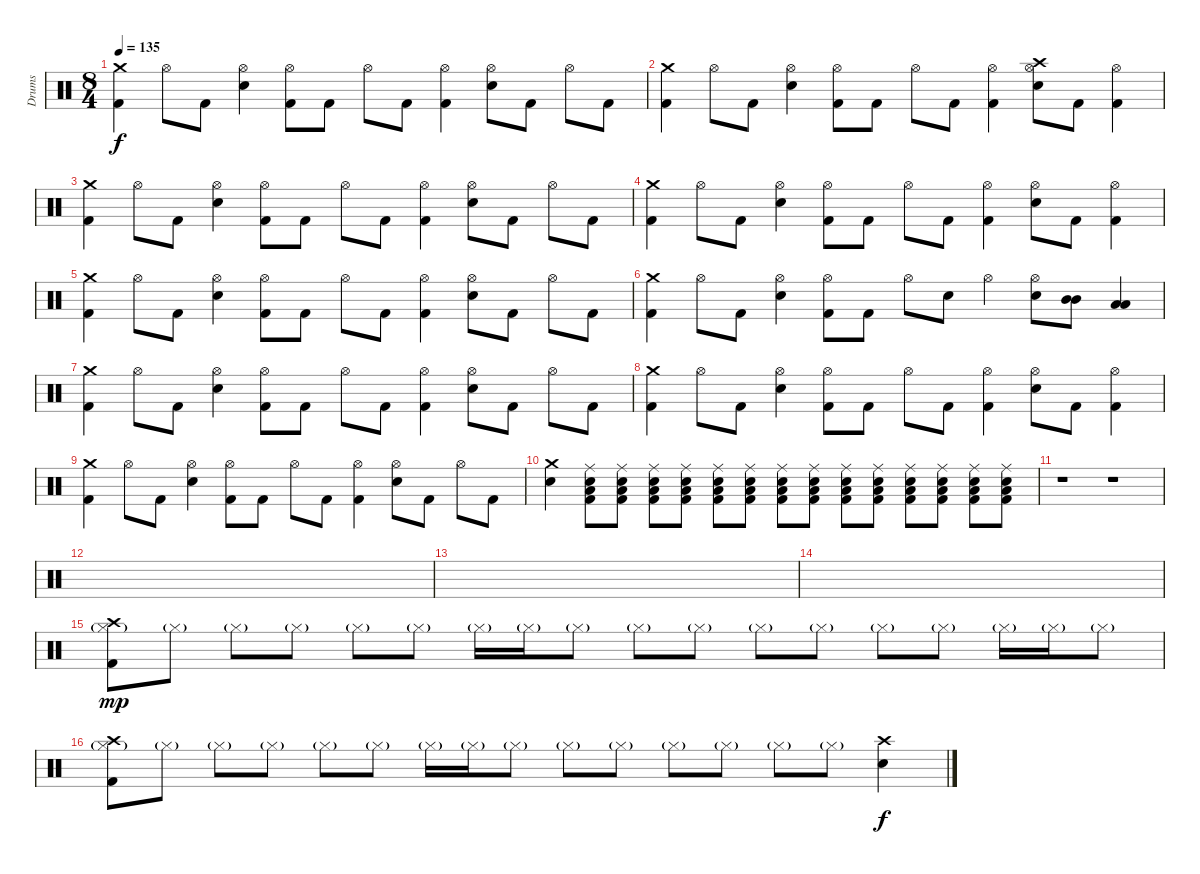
\track ("Drums" "Drums") {instrument percussion}
\staff {score}
\articulation defaults
\ts (8 4)
\tempo 135
\clef neutral
\ks c
("Crash medium (hit)" "Kick (hit) 2").4{dy f} "Hi-Hat (open)".8 "Kick (hit) 2".8 ("Hi-Hat (open)" "Electric Snare (hit)").4 ("Hi-Hat (open)" "Kick (hit) 2").8 "Kick (hit) 2".8 "Hi-Hat (open)".8 "Kick (hit) 2".8 ("Hi-Hat (open)" "Kick (hit) 2").4 ("Hi-Hat (open)" "Electric Snare (hit)").8 "Kick (hit) 2".8 "Hi-Hat (open)".8 "Kick (hit) 2".8 |
("Crash medium (hit)" "Kick (hit) 2").4 "Hi-Hat (open)".8 "Kick (hit) 2".8 ("Hi-Hat (open)" "Electric Snare (hit)").4 ("Hi-Hat (open)" "Kick (hit) 2").8 "Kick (hit) 2".8 "Hi-Hat (open)".8 "Kick (hit) 2".8 ("Hi-Hat (open)" "Kick (hit) 2").4 ("Crash high (hit)" "Hi-Hat (open)" "Electric Snare (hit)").8 "Kick (hit) 2".8 ("Hi-Hat (open)" "Kick (hit) 2").4 |
("Crash medium (hit)" "Kick (hit) 2").4 "Hi-Hat (open)".8 "Kick (hit) 2".8 ("Hi-Hat (open)" "Electric Snare (hit)").4 ("Hi-Hat (open)" "Kick (hit) 2").8 "Kick (hit) 2".8 "Hi-Hat (open)".8 "Kick (hit) 2".8 ("Hi-Hat (open)" "Kick (hit) 2").4 ("Hi-Hat (open)" "Electric Snare (hit)").8 "Kick (hit) 2".8 "Hi-Hat (open)".8 "Kick (hit) 2".8 |
("Crash medium (hit)" "Kick (hit) 2").4 "Hi-Hat (open)".8 "Kick (hit) 2".8 ("Hi-Hat (open)" "Electric Snare (hit)").4 ("Hi-Hat (open)" "Kick (hit) 2").8 "Kick (hit) 2".8 "Hi-Hat (open)".8 "Kick (hit) 2".8 ("Hi-Hat (open)" "Kick (hit) 2").4 ("Hi-Hat (open)" "Electric Snare (hit)").8 "Kick (hit) 2".8 ("Hi-Hat (open)" "Kick (hit) 2").4 |
("Crash medium (hit)" "Kick (hit) 2").4 "Hi-Hat (open)".8 "Kick (hit) 2".8 ("Hi-Hat (open)" "Electric Snare (hit)").4 ("Hi-Hat (open)" "Kick (hit) 2").8 "Kick (hit) 2".8 "Hi-Hat (open)".8 "Kick (hit) 2".8 ("Hi-Hat (open)" "Kick (hit) 2").4 ("Hi-Hat (open)" "Electric Snare (hit)").8 "Kick (hit) 2".8 "Hi-Hat (open)".8 "Kick (hit) 2".8 |
("Crash medium (hit)" "Kick (hit) 2").4 "Hi-Hat (open)".8 "Kick (hit) 2".8 ("Hi-Hat (open)" "Electric Snare (hit)").4 ("Hi-Hat (open)" "Kick (hit) 2").8 "Kick (hit) 2".8 "Hi-Hat (open)".8 "Electric Snare (hit)".8 "Hi-Hat (open)".4 ("Hi-Hat (open)" "Electric Snare (hit)").8 ("Mid Tom (hit)" "Mid Tom (hit)").8 ("Low Tom (hit)" "Low Tom (hit)").4 |
("Crash medium (hit)" "Kick (hit) 2").4 "Hi-Hat (open)".8 "Kick (hit) 2".8 ("Hi-Hat (open)" "Electric Snare (hit)").4 ("Hi-Hat (open)" "Kick (hit) 2").8 "Kick (hit) 2".8 "Hi-Hat (open)".8 "Kick (hit) 2".8 ("Hi-Hat (open)" "Kick (hit) 2").4 ("Hi-Hat (open)" "Electric Snare (hit)").8 "Kick (hit) 2".8 "Hi-Hat (open)".8 "Kick (hit) 2".8 |
("Crash medium (hit)" "Kick (hit) 2").4 "Hi-Hat (open)".8 "Kick (hit) 2".8 ("Hi-Hat (open)" "Electric Snare (hit)").4 ("Hi-Hat (open)" "Kick (hit) 2").8 "Kick (hit) 2".8 "Hi-Hat (open)".8 "Kick (hit) 2".8 ("Hi-Hat (open)" "Kick (hit) 2").4 ("Hi-Hat (open)" "Electric Snare (hit)").8 "Kick (hit) 2".8 ("Hi-Hat (open)" "Kick (hit) 2").4 |
("Crash medium (hit)" "Kick (hit) 2").4 "Hi-Hat (open)".8 "Kick (hit) 2".8 ("Hi-Hat (open)" "Electric Snare (hit)").4 ("Hi-Hat (open)" "Kick (hit) 2").8 "Kick (hit) 2".8 "Hi-Hat (open)".8 "Kick (hit) 2".8 ("Hi-Hat (open)" "Kick (hit) 2").4 ("Hi-Hat (open)" "Electric Snare (hit)").8 "Kick (hit) 2".8 "Hi-Hat (open)".8 "Kick (hit) 2".8 |
("Crash medium (hit)" "Electric Snare (hit)").4 ("Ride (middle)" "Electric Snare (hit)" "Low Tom (hit)" "Kick (hit) 2").8 ("Ride (middle)" "Electric Snare (hit)" "Low Tom (hit)" "Kick (hit) 2").8 ("Ride (middle)" "Electric Snare (hit)" "Low Tom (hit)" "Kick (hit) 2").8 ("Ride (middle)" "Electric Snare (hit)" "Low Tom (hit)" "Kick (hit) 2").8 ("Ride (middle)" "Electric Snare (hit)" "Low Tom (hit)" "Kick (hit) 2").8 ("Ride (middle)" "Electric Snare (hit)" "Low Tom (hit)" "Kick (hit) 2").8 ("Ride (middle)" "Electric Snare (hit)" "Low Tom (hit)" "Kick (hit) 2").8 ("Ride (middle)" "Electric Snare (hit)" "Low Tom (hit)" "Kick (hit) 2").8 ("Ride (middle)" "Electric Snare (hit)" "Low Tom (hit)" "Kick (hit) 2").8 ("Ride (middle)" "Electric Snare (hit)" "Low Tom (hit)" "Kick (hit) 2").8 ("Ride (middle)" "Electric Snare (hit)" "Low Tom (hit)" "Kick (hit) 2").8 ("Ride (middle)" "Electric Snare (hit)" "Low Tom (hit)" "Kick (hit) 2").8 ("Ride (middle)" "Electric Snare (hit)" "Low Tom (hit)" "Kick (hit) 2").8 ("Ride (middle)" "Electric Snare (hit)" "Low Tom (hit)" "Kick (hit) 2").8 |
r.1 r.1 |
|
|
|
("Crash high (hit)" "Hi-Hat (closed)"{g} "Kick (hit) 2").8{dy mp} "Hi-Hat (closed)"{g}.8 "Hi-Hat (closed)"{g}.8 "Hi-Hat (closed)"{g}.8 "Hi-Hat (closed)"{g}.8 "Hi-Hat (closed)"{g}.8 "Hi-Hat (closed)"{g}.16 "Hi-Hat (closed)"{g}.16 "Hi-Hat (closed)"{g}.8 "Hi-Hat (closed)"{g}.8 "Hi-Hat (closed)"{g}.8 "Hi-Hat (closed)"{g}.8 "Hi-Hat (closed)"{g}.8 "Hi-Hat (closed)"{g}.8 "Hi-Hat (closed)"{g}.8 "Hi-Hat (closed)"{g}.16 "Hi-Hat (closed)"{g}.16 "Hi-Hat (closed)"{g}.8 |
("Crash high (hit)" "Hi-Hat (closed)"{g} "Kick (hit) 2").8 "Hi-Hat (closed)"{g}.8 "Hi-Hat (closed)"{g}.8 "Hi-Hat (closed)"{g}.8 "Hi-Hat (closed)"{g}.8 "Hi-Hat (closed)"{g}.8 "Hi-Hat (closed)"{g}.16 "Hi-Hat (closed)"{g}.16 "Hi-Hat (closed)"{g}.8 "Hi-Hat (closed)"{g}.8 "Hi-Hat (closed)"{g}.8 "Hi-Hat (closed)"{g}.8 "Hi-Hat (closed)"{g}.8 "Hi-Hat (closed)"{g}.8 "Hi-Hat (closed)"{g}.8 ("Crash high (hit)" "Electric Snare (hit)").4{dy f}
